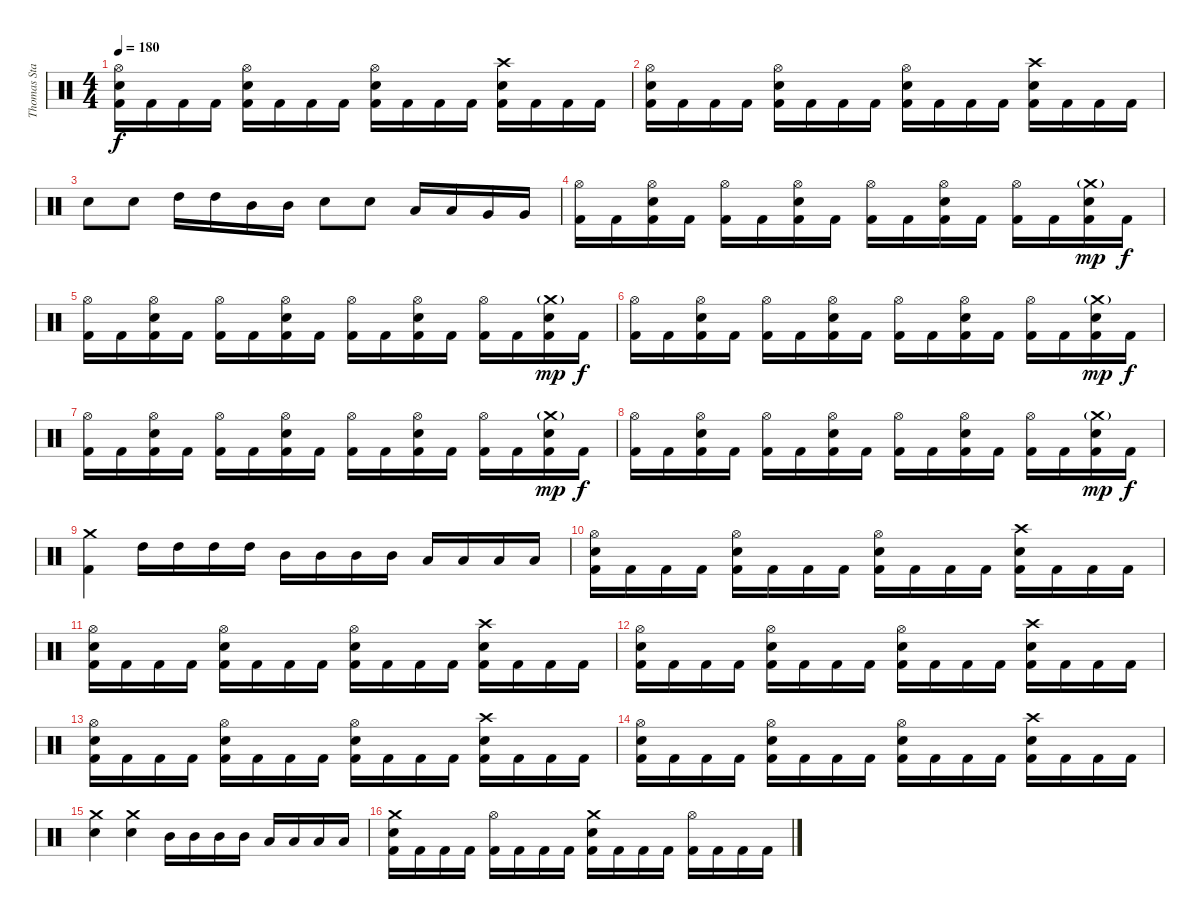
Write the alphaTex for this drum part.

\track ("Thomas Stauch" "Thomas Sta") {instrument percussion}
\staff {score}
\articulation defaults
\ts (4 4)
\tempo 180
\clef neutral
\ks c
("Hi-Hat (open)" "Electric Snare (hit)" "Kick (hit) 2").16{dy f} "Kick (hit) 2".16 "Kick (hit) 2".16 "Kick (hit) 2".16 ("Hi-Hat (open)" "Electric Snare (hit)" "Kick (hit) 2").16 "Kick (hit) 2".16 "Kick (hit) 2".16 "Kick (hit) 2".16 ("Hi-Hat (open)" "Electric Snare (hit)" "Kick (hit) 2").16 "Kick (hit) 2".16 "Kick (hit) 2".16 "Kick (hit) 2".16 ("Crash high (hit)" "Electric Snare (hit)" "Kick (hit) 2").16 "Kick (hit) 2".16 "Kick (hit) 2".16 "Kick (hit) 2".16 |
("Hi-Hat (open)" "Electric Snare (hit)" "Kick (hit) 2").16 "Kick (hit) 2".16 "Kick (hit) 2".16 "Kick (hit) 2".16 ("Hi-Hat (open)" "Electric Snare (hit)" "Kick (hit) 2").16 "Kick (hit) 2".16 "Kick (hit) 2".16 "Kick (hit) 2".16 ("Hi-Hat (open)" "Electric Snare (hit)" "Kick (hit) 2").16 "Kick (hit) 2".16 "Kick (hit) 2".16 "Kick (hit) 2".16 ("Crash high (hit)" "Electric Snare (hit)" "Kick (hit) 2").16 "Kick (hit) 2".16 "Kick (hit) 2".16 "Kick (hit) 2".16 |
"Electric Snare (hit)".8 "Electric Snare (hit)".8 "High Tom (hit)".16 "High Tom (hit)".16 "Mid Tom (hit)".16 "Mid Tom (hit)".16 "Electric Snare (hit)".8 "Electric Snare (hit)".8 "Low Tom (hit)".16 "Low Tom (hit)".16 "Very Low Tom (hit)".16 "Very Low Tom (hit)".16 |
("Hi-Hat (open)" "Kick (hit) 2").16 "Kick (hit) 2".16 ("Hi-Hat (open)" "Electric Snare (hit)" "Kick (hit) 2").16 "Kick (hit) 2".16 ("Hi-Hat (open)" "Kick (hit) 2").16 "Kick (hit) 2".16 ("Hi-Hat (open)" "Electric Snare (hit)" "Kick (hit) 2").16 "Kick (hit) 2".16 ("Hi-Hat (open)" "Kick (hit) 2").16 "Kick (hit) 2".16 ("Hi-Hat (open)" "Electric Snare (hit)" "Kick (hit) 2").16 "Kick (hit) 2".16 ("Hi-Hat (open)" "Kick (hit) 2").16 "Kick (hit) 2".16 ("Crash medium (hit)"{g} "Electric Snare (hit)" "Kick (hit) 2").16{dy mp} "Kick (hit) 2".16{dy f} |
("Hi-Hat (open)" "Kick (hit) 2").16 "Kick (hit) 2".16 ("Hi-Hat (open)" "Electric Snare (hit)" "Kick (hit) 2").16 "Kick (hit) 2".16 ("Hi-Hat (open)" "Kick (hit) 2").16 "Kick (hit) 2".16 ("Hi-Hat (open)" "Electric Snare (hit)" "Kick (hit) 2").16 "Kick (hit) 2".16 ("Hi-Hat (open)" "Kick (hit) 2").16 "Kick (hit) 2".16 ("Hi-Hat (open)" "Electric Snare (hit)" "Kick (hit) 2").16 "Kick (hit) 2".16 ("Hi-Hat (open)" "Kick (hit) 2").16 "Kick (hit) 2".16 ("Crash medium (hit)"{g} "Electric Snare (hit)" "Kick (hit) 2").16{dy mp} "Kick (hit) 2".16{dy f} |
("Hi-Hat (open)" "Kick (hit) 2").16 "Kick (hit) 2".16 ("Hi-Hat (open)" "Electric Snare (hit)" "Kick (hit) 2").16 "Kick (hit) 2".16 ("Hi-Hat (open)" "Kick (hit) 2").16 "Kick (hit) 2".16 ("Hi-Hat (open)" "Electric Snare (hit)" "Kick (hit) 2").16 "Kick (hit) 2".16 ("Hi-Hat (open)" "Kick (hit) 2").16 "Kick (hit) 2".16 ("Hi-Hat (open)" "Electric Snare (hit)" "Kick (hit) 2").16 "Kick (hit) 2".16 ("Hi-Hat (open)" "Kick (hit) 2").16 "Kick (hit) 2".16 ("Crash medium (hit)"{g} "Electric Snare (hit)" "Kick (hit) 2").16{dy mp} "Kick (hit) 2".16{dy f} |
("Hi-Hat (open)" "Kick (hit) 2").16 "Kick (hit) 2".16 ("Hi-Hat (open)" "Electric Snare (hit)" "Kick (hit) 2").16 "Kick (hit) 2".16 ("Hi-Hat (open)" "Kick (hit) 2").16 "Kick (hit) 2".16 ("Hi-Hat (open)" "Electric Snare (hit)" "Kick (hit) 2").16 "Kick (hit) 2".16 ("Hi-Hat (open)" "Kick (hit) 2").16 "Kick (hit) 2".16 ("Hi-Hat (open)" "Electric Snare (hit)" "Kick (hit) 2").16 "Kick (hit) 2".16 ("Hi-Hat (open)" "Kick (hit) 2").16 "Kick (hit) 2".16 ("Crash medium (hit)"{g} "Electric Snare (hit)" "Kick (hit) 2").16{dy mp} "Kick (hit) 2".16{dy f} |
("Hi-Hat (open)" "Kick (hit) 2").16 "Kick (hit) 2".16 ("Hi-Hat (open)" "Electric Snare (hit)" "Kick (hit) 2").16 "Kick (hit) 2".16 ("Hi-Hat (open)" "Kick (hit) 2").16 "Kick (hit) 2".16 ("Hi-Hat (open)" "Electric Snare (hit)" "Kick (hit) 2").16 "Kick (hit) 2".16 ("Hi-Hat (open)" "Kick (hit) 2").16 "Kick (hit) 2".16 ("Hi-Hat (open)" "Electric Snare (hit)" "Kick (hit) 2").16 "Kick (hit) 2".16 ("Hi-Hat (open)" "Kick (hit) 2").16 "Kick (hit) 2".16 ("Crash medium (hit)"{g} "Electric Snare (hit)" "Kick (hit) 2").16{dy mp} "Kick (hit) 2".16{dy f} |
("Crash medium (hit)" "Kick (hit) 2").4 "High Tom (hit)".16 "High Tom (hit)".16 "High Tom (hit)".16 "High Tom (hit)".16 "Mid Tom (hit)".16 "Mid Tom (hit)".16 "Mid Tom (hit)".16 "Mid Tom (hit)".16 "Low Tom (hit)".16 "Low Tom (hit)".16 "Low Tom (hit)".16 "Low Tom (hit)".16 |
("Hi-Hat (open)" "Electric Snare (hit)" "Kick (hit) 2").16 "Kick (hit) 2".16 "Kick (hit) 2".16 "Kick (hit) 2".16 ("Hi-Hat (open)" "Electric Snare (hit)" "Kick (hit) 2").16 "Kick (hit) 2".16 "Kick (hit) 2".16 "Kick (hit) 2".16 ("Hi-Hat (open)" "Electric Snare (hit)" "Kick (hit) 2").16 "Kick (hit) 2".16 "Kick (hit) 2".16 "Kick (hit) 2".16 ("Crash high (hit)" "Electric Snare (hit)" "Kick (hit) 2").16 "Kick (hit) 2".16 "Kick (hit) 2".16 "Kick (hit) 2".16 |
("Hi-Hat (open)" "Electric Snare (hit)" "Kick (hit) 2").16 "Kick (hit) 2".16 "Kick (hit) 2".16 "Kick (hit) 2".16 ("Hi-Hat (open)" "Electric Snare (hit)" "Kick (hit) 2").16 "Kick (hit) 2".16 "Kick (hit) 2".16 "Kick (hit) 2".16 ("Hi-Hat (open)" "Electric Snare (hit)" "Kick (hit) 2").16 "Kick (hit) 2".16 "Kick (hit) 2".16 "Kick (hit) 2".16 ("Crash high (hit)" "Electric Snare (hit)" "Kick (hit) 2").16 "Kick (hit) 2".16 "Kick (hit) 2".16 "Kick (hit) 2".16 |
("Hi-Hat (open)" "Electric Snare (hit)" "Kick (hit) 2").16 "Kick (hit) 2".16 "Kick (hit) 2".16 "Kick (hit) 2".16 ("Hi-Hat (open)" "Electric Snare (hit)" "Kick (hit) 2").16 "Kick (hit) 2".16 "Kick (hit) 2".16 "Kick (hit) 2".16 ("Hi-Hat (open)" "Electric Snare (hit)" "Kick (hit) 2").16 "Kick (hit) 2".16 "Kick (hit) 2".16 "Kick (hit) 2".16 ("Crash high (hit)" "Electric Snare (hit)" "Kick (hit) 2").16 "Kick (hit) 2".16 "Kick (hit) 2".16 "Kick (hit) 2".16 |
("Hi-Hat (open)" "Electric Snare (hit)" "Kick (hit) 2").16 "Kick (hit) 2".16 "Kick (hit) 2".16 "Kick (hit) 2".16 ("Hi-Hat (open)" "Electric Snare (hit)" "Kick (hit) 2").16 "Kick (hit) 2".16 "Kick (hit) 2".16 "Kick (hit) 2".16 ("Hi-Hat (open)" "Electric Snare (hit)" "Kick (hit) 2").16 "Kick (hit) 2".16 "Kick (hit) 2".16 "Kick (hit) 2".16 ("Crash high (hit)" "Electric Snare (hit)" "Kick (hit) 2").16 "Kick (hit) 2".16 "Kick (hit) 2".16 "Kick (hit) 2".16 |
("Hi-Hat (open)" "Electric Snare (hit)" "Kick (hit) 2").16 "Kick (hit) 2".16 "Kick (hit) 2".16 "Kick (hit) 2".16 ("Hi-Hat (open)" "Electric Snare (hit)" "Kick (hit) 2").16 "Kick (hit) 2".16 "Kick (hit) 2".16 "Kick (hit) 2".16 ("Hi-Hat (open)" "Electric Snare (hit)" "Kick (hit) 2").16 "Kick (hit) 2".16 "Kick (hit) 2".16 "Kick (hit) 2".16 ("Crash high (hit)" "Electric Snare (hit)" "Kick (hit) 2").16 "Kick (hit) 2".16 "Kick (hit) 2".16 "Kick (hit) 2".16 |
("Crash medium (hit)" "Electric Snare (hit)").4 ("Crash medium (hit)" "Electric Snare (hit)").4 "Mid Tom (hit)".16 "Mid Tom (hit)".16 "Mid Tom (hit)".16 "Mid Tom (hit)".16 "Low Tom (hit)".16 "Low Tom (hit)".16 "Low Tom (hit)".16 "Low Tom (hit)".16 |
("Crash medium (hit)" "Electric Snare (hit)" "Kick (hit) 2").16 "Kick (hit) 2".16 "Kick (hit) 2".16 "Kick (hit) 2".16 ("Hi-Hat (open)" "Kick (hit) 2").16 "Kick (hit) 2".16 "Kick (hit) 2".16 "Kick (hit) 2".16 ("Crash medium (hit)" "Electric Snare (hit)" "Kick (hit) 2").16 "Kick (hit) 2".16 "Kick (hit) 2".16 "Kick (hit) 2".16 ("Hi-Hat (open)" "Kick (hit) 2").16 "Kick (hit) 2".16 "Kick (hit) 2".16 "Kick (hit) 2".16
